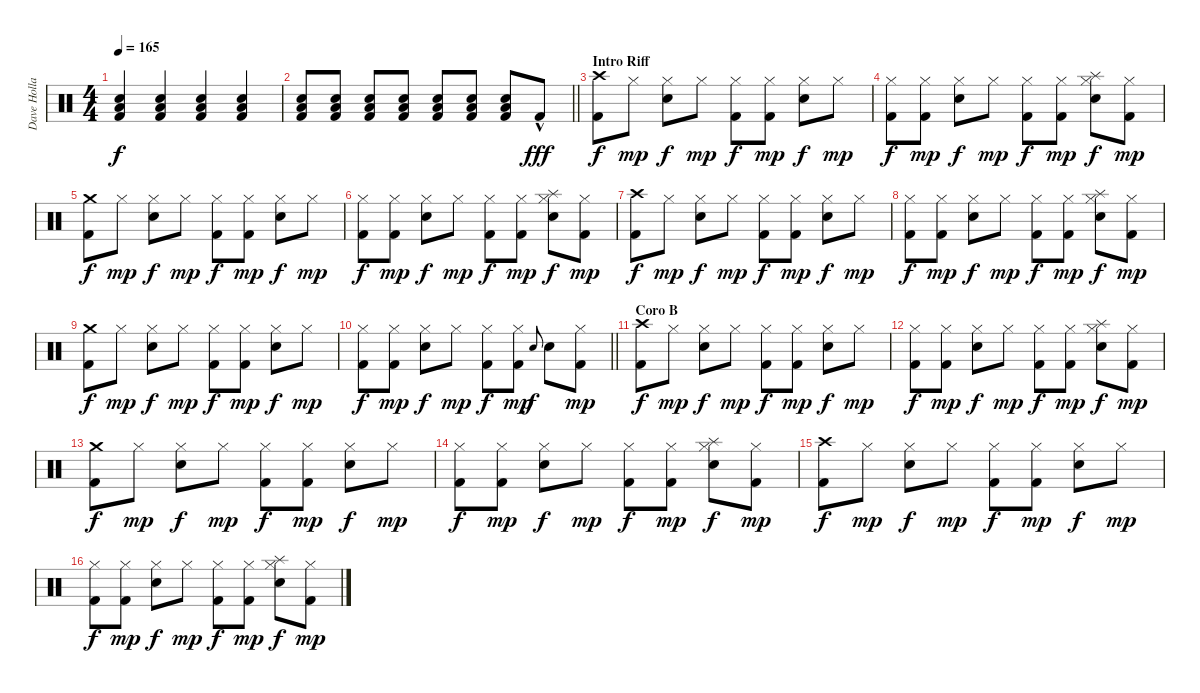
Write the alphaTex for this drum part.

\track ("Dave Holland" "Dave Holla") {instrument percussion}
\staff {score}
\articulation defaults
\ts (4 4)
\tempo 165
\clef neutral
\ks c
("Snare (hit) 2" "Low Floor Tom (hit)" "Kick (hit) 2").4{dy f} ("Snare (hit) 2" "Low Floor Tom (hit)" "Kick (hit) 2").4 ("Snare (hit) 2" "Low Floor Tom (hit)" "Kick (hit) 2").4 ("Snare (hit) 2" "Low Floor Tom (hit)" "Kick (hit) 2").4 |
\barLineRight lightlight
("Snare (hit) 2" "Low Floor Tom (hit)" "Kick (hit) 2").8 ("Snare (hit) 2" "Low Floor Tom (hit)" "Kick (hit) 2").8 ("Snare (hit) 2" "Low Floor Tom (hit)" "Kick (hit) 2").8 ("Snare (hit) 2" "Low Floor Tom (hit)" "Kick (hit) 2").8 ("Snare (hit) 2" "Low Floor Tom (hit)" "Kick (hit) 2").8 ("Snare (hit) 2" "Low Floor Tom (hit)" "Kick (hit) 2").8 ("Snare (hit) 2" "Low Floor Tom (hit)" "Kick (hit) 2").8 "Kick (hit) 2"{hac}.8{dy fff} |
\section ("" "Intro Riff")
("Crash high (hit)" "Kick (hit) 2").8{dy f} "Hi-Hat (closed)".8{dy mp} ("Hi-Hat (closed)" "Snare (hit) 2").8{dy f} "Hi-Hat (closed)".8{dy mp} ("Hi-Hat (closed)" "Kick (hit) 2").8{dy f} ("Hi-Hat (closed)" "Kick (hit) 2").8{dy mp} ("Hi-Hat (closed)" "Snare (hit) 2").8{dy f} "Hi-Hat (closed)".8{dy mp} |
("Hi-Hat (closed)" "Kick (hit) 2").8{dy f} ("Hi-Hat (closed)" "Kick (hit) 2").8{dy mp} ("Hi-Hat (closed)" "Snare (hit) 2").8{dy f} "Hi-Hat (closed)".8{dy mp} ("Hi-Hat (closed)" "Kick (hit) 2").8{dy f} ("Hi-Hat (closed)" "Kick (hit) 2").8{dy mp} ("Hi-Hat (closed)" "Snare (hit) 2" "Splash (hit)").8{dy f} ("Hi-Hat (closed)" "Kick (hit) 2").8{dy mp} |
("Crash medium (hit)" "Kick (hit) 2").8{dy f} "Hi-Hat (closed)".8{dy mp} ("Hi-Hat (closed)" "Snare (hit) 2").8{dy f} "Hi-Hat (closed)".8{dy mp} ("Hi-Hat (closed)" "Kick (hit) 2").8{dy f} ("Hi-Hat (closed)" "Kick (hit) 2").8{dy mp} ("Hi-Hat (closed)" "Snare (hit) 2").8{dy f} "Hi-Hat (closed)".8{dy mp} |
("Hi-Hat (closed)" "Kick (hit) 2").8{dy f} ("Hi-Hat (closed)" "Kick (hit) 2").8{dy mp} ("Hi-Hat (closed)" "Snare (hit) 2").8{dy f} "Hi-Hat (closed)".8{dy mp} ("Hi-Hat (closed)" "Kick (hit) 2").8{dy f} ("Hi-Hat (closed)" "Kick (hit) 2").8{dy mp} ("Hi-Hat (closed)" "Snare (hit) 2" "Splash (hit)").8{dy f} ("Hi-Hat (closed)" "Kick (hit) 2").8{dy mp} |
("Crash high (hit)" "Kick (hit) 2").8{dy f} "Hi-Hat (closed)".8{dy mp} ("Hi-Hat (closed)" "Snare (hit) 2").8{dy f} "Hi-Hat (closed)".8{dy mp} ("Hi-Hat (closed)" "Kick (hit) 2").8{dy f} ("Hi-Hat (closed)" "Kick (hit) 2").8{dy mp} ("Hi-Hat (closed)" "Snare (hit) 2").8{dy f} "Hi-Hat (closed)".8{dy mp} |
("Hi-Hat (closed)" "Kick (hit) 2").8{dy f} ("Hi-Hat (closed)" "Kick (hit) 2").8{dy mp} ("Hi-Hat (closed)" "Snare (hit) 2").8{dy f} "Hi-Hat (closed)".8{dy mp} ("Hi-Hat (closed)" "Kick (hit) 2").8{dy f} ("Hi-Hat (closed)" "Kick (hit) 2").8{dy mp} ("Hi-Hat (closed)" "Snare (hit) 2" "Splash (hit)").8{dy f} ("Hi-Hat (closed)" "Kick (hit) 2").8{dy mp} |
("Crash medium (hit)" "Kick (hit) 2").8{dy f} "Hi-Hat (closed)".8{dy mp} ("Hi-Hat (closed)" "Snare (hit) 2").8{dy f} "Hi-Hat (closed)".8{dy mp} ("Hi-Hat (closed)" "Kick (hit) 2").8{dy f} ("Hi-Hat (closed)" "Kick (hit) 2").8{dy mp} ("Hi-Hat (closed)" "Snare (hit) 2").8{dy f} "Hi-Hat (closed)".8{dy mp} |
\barLineRight lightlight
("Hi-Hat (closed)" "Kick (hit) 2").8{dy f} ("Hi-Hat (closed)" "Kick (hit) 2").8{dy mp} ("Hi-Hat (closed)" "Snare (hit) 2").8{dy f} "Hi-Hat (closed)".8{dy mp} ("Hi-Hat (closed)" "Kick (hit) 2").8{dy f} ("Hi-Hat (closed)" "Kick (hit) 2").8{dy mp} "Snare (hit) 2".8{gr onbeat dy f} "Snare (hit) 2".8 ("Hi-Hat (closed)" "Kick (hit) 2").8{dy mp} |
\section ("" "Coro B")
("Crash high (hit)" "Kick (hit) 2").8{dy f} "Hi-Hat (closed)".8{dy mp} ("Hi-Hat (closed)" "Snare (hit) 2").8{dy f} "Hi-Hat (closed)".8{dy mp} ("Hi-Hat (closed)" "Kick (hit) 2").8{dy f} ("Hi-Hat (closed)" "Kick (hit) 2").8{dy mp} ("Hi-Hat (closed)" "Snare (hit) 2").8{dy f} "Hi-Hat (closed)".8{dy mp} |
("Hi-Hat (closed)" "Kick (hit) 2").8{dy f} ("Hi-Hat (closed)" "Kick (hit) 2").8{dy mp} ("Hi-Hat (closed)" "Snare (hit) 2").8{dy f} "Hi-Hat (closed)".8{dy mp} ("Hi-Hat (closed)" "Kick (hit) 2").8{dy f} ("Hi-Hat (closed)" "Kick (hit) 2").8{dy mp} ("Hi-Hat (closed)" "Snare (hit) 2" "Splash (hit)").8{dy f} ("Hi-Hat (closed)" "Kick (hit) 2").8{dy mp} |
("Crash medium (hit)" "Kick (hit) 2").8{dy f} "Hi-Hat (closed)".8{dy mp} ("Hi-Hat (closed)" "Snare (hit) 2").8{dy f} "Hi-Hat (closed)".8{dy mp} ("Hi-Hat (closed)" "Kick (hit) 2").8{dy f} ("Hi-Hat (closed)" "Kick (hit) 2").8{dy mp} ("Hi-Hat (closed)" "Snare (hit) 2").8{dy f} "Hi-Hat (closed)".8{dy mp} |
("Hi-Hat (closed)" "Kick (hit) 2").8{dy f} ("Hi-Hat (closed)" "Kick (hit) 2").8{dy mp} ("Hi-Hat (closed)" "Snare (hit) 2").8{dy f} "Hi-Hat (closed)".8{dy mp} ("Hi-Hat (closed)" "Kick (hit) 2").8{dy f} ("Hi-Hat (closed)" "Kick (hit) 2").8{dy mp} ("Hi-Hat (closed)" "Snare (hit) 2" "Splash (hit)").8{dy f} ("Hi-Hat (closed)" "Kick (hit) 2").8{dy mp} |
("Crash high (hit)" "Kick (hit) 2").8{dy f} "Hi-Hat (closed)".8{dy mp} ("Hi-Hat (closed)" "Snare (hit) 2").8{dy f} "Hi-Hat (closed)".8{dy mp} ("Hi-Hat (closed)" "Kick (hit) 2").8{dy f} ("Hi-Hat (closed)" "Kick (hit) 2").8{dy mp} ("Hi-Hat (closed)" "Snare (hit) 2").8{dy f} "Hi-Hat (closed)".8{dy mp} |
("Hi-Hat (closed)" "Kick (hit) 2").8{dy f} ("Hi-Hat (closed)" "Kick (hit) 2").8{dy mp} ("Hi-Hat (closed)" "Snare (hit) 2").8{dy f} "Hi-Hat (closed)".8{dy mp} ("Hi-Hat (closed)" "Kick (hit) 2").8{dy f} ("Hi-Hat (closed)" "Kick (hit) 2").8{dy mp} ("Hi-Hat (closed)" "Snare (hit) 2" "Splash (hit)").8{dy f} ("Hi-Hat (closed)" "Kick (hit) 2").8{dy mp}
